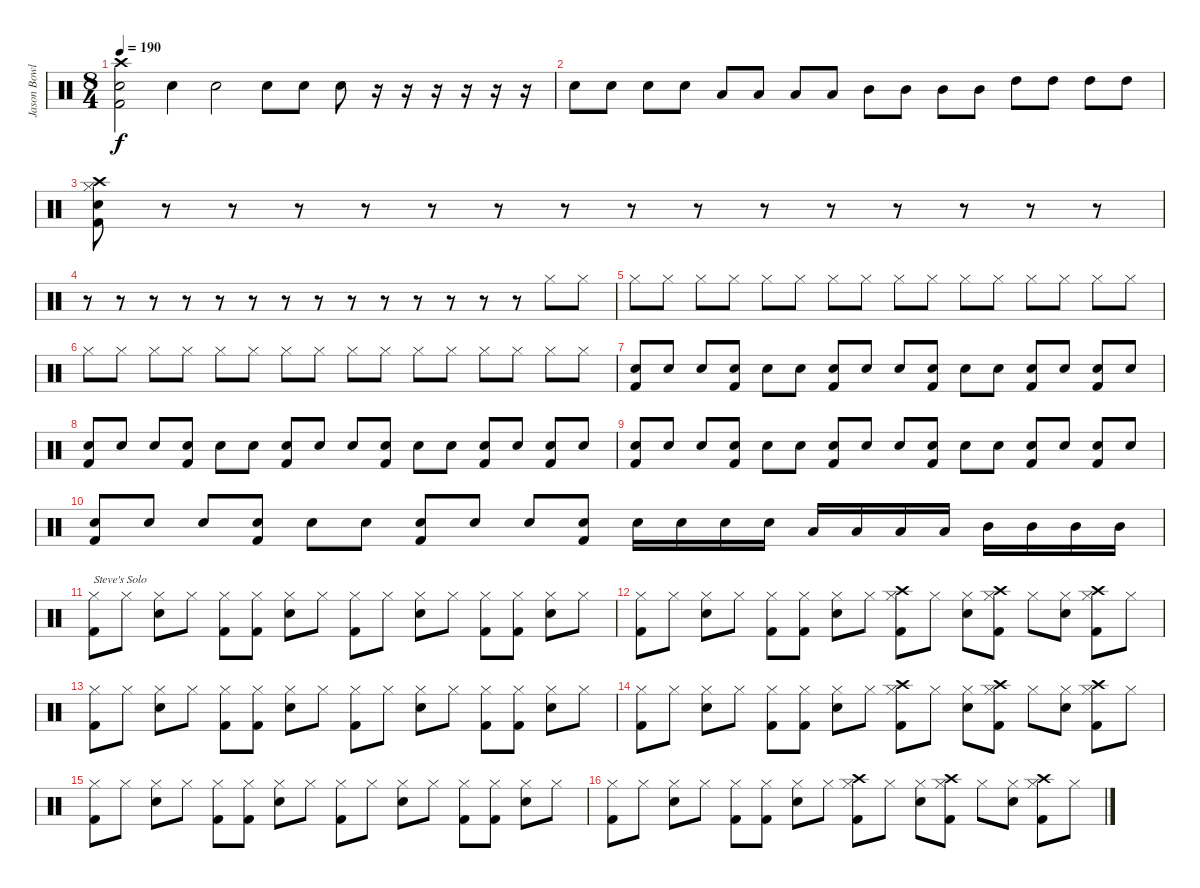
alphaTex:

\track ("Jason Bowld" "Jason Bowl") {instrument percussion}
\staff {score}
\articulation defaults
\ts (8 4)
\tempo 190
\clef neutral
\ks c
("Kick (hit) 2" "Snare (hit) 2" "Crash high (hit)").2{dy f} "Snare (hit) 2".4 "Snare (hit) 2".2 "Snare (hit) 2".8 "Snare (hit) 2".8 "Snare (hit) 2".8 r.16 r.16 r.16 r.16 r.16 r.16 |
"Snare (hit) 2".8 "Snare (hit) 2".8 "Snare (hit) 2".8 "Snare (hit) 2".8 "Low Tom (hit)".8 "Low Tom (hit)".8 "Low Tom (hit)".8 "Low Tom (hit)".8 "Mid Tom (hit)".8 "Mid Tom (hit)".8 "Mid Tom (hit)".8 "Mid Tom (hit)".8 "High Tom (hit)".8 "High Tom (hit)".8 "High Tom (hit)".8 "High Tom (hit)".8 |
("Hi-Hat (closed)" "Crash high (hit)" "Kick (hit) 2" "Snare (hit) 2").8 r.8 r.8 r.8 r.8 r.8 r.8 r.8 r.8 r.8 r.8 r.8 r.8 r.8 r.8 r.8 |
r.8 r.8 r.8 r.8 r.8 r.8 r.8 r.8 r.8 r.8 r.8 r.8 r.8 r.8 "Hi-Hat (closed)".8 "Hi-Hat (closed)".8 |
"Hi-Hat (closed)".8 "Hi-Hat (closed)".8 "Hi-Hat (closed)".8 "Hi-Hat (closed)".8 "Hi-Hat (closed)".8 "Hi-Hat (closed)".8 "Hi-Hat (closed)".8 "Hi-Hat (closed)".8 "Hi-Hat (closed)".8 "Hi-Hat (closed)".8 "Hi-Hat (closed)".8 "Hi-Hat (closed)".8 "Hi-Hat (closed)".8 "Hi-Hat (closed)".8 "Hi-Hat (closed)".8 "Hi-Hat (closed)".8 |
"Hi-Hat (closed)".8 "Hi-Hat (closed)".8 "Hi-Hat (closed)".8 "Hi-Hat (closed)".8 "Hi-Hat (closed)".8 "Hi-Hat (closed)".8 "Hi-Hat (closed)".8 "Hi-Hat (closed)".8 "Hi-Hat (closed)".8 "Hi-Hat (closed)".8 "Hi-Hat (closed)".8 "Hi-Hat (closed)".8 "Hi-Hat (closed)".8 "Hi-Hat (closed)".8 "Hi-Hat (closed)".8 "Hi-Hat (closed)".8 |
("Snare (hit) 2" "Kick (hit) 2").8 "Snare (hit) 2".8 "Snare (hit) 2".8 ("Snare (hit) 2" "Kick (hit) 2").8 "Snare (hit) 2".8 "Snare (hit) 2".8 ("Snare (hit) 2" "Kick (hit) 2").8 "Snare (hit) 2".8 "Snare (hit) 2".8 ("Snare (hit) 2" "Kick (hit) 2").8 "Snare (hit) 2".8 "Snare (hit) 2".8 ("Snare (hit) 2" "Kick (hit) 2").8 "Snare (hit) 2".8 ("Snare (hit) 2" "Kick (hit) 2").8 "Snare (hit) 2".8 |
("Snare (hit) 2" "Kick (hit) 2").8 "Snare (hit) 2".8 "Snare (hit) 2".8 ("Snare (hit) 2" "Kick (hit) 2").8 "Snare (hit) 2".8 "Snare (hit) 2".8 ("Snare (hit) 2" "Kick (hit) 2").8 "Snare (hit) 2".8 "Snare (hit) 2".8 ("Snare (hit) 2" "Kick (hit) 2").8 "Snare (hit) 2".8 "Snare (hit) 2".8 ("Snare (hit) 2" "Kick (hit) 2").8 "Snare (hit) 2".8 ("Snare (hit) 2" "Kick (hit) 2").8 "Snare (hit) 2".8 |
("Snare (hit) 2" "Kick (hit) 2").8 "Snare (hit) 2".8 "Snare (hit) 2".8 ("Snare (hit) 2" "Kick (hit) 2").8 "Snare (hit) 2".8 "Snare (hit) 2".8 ("Snare (hit) 2" "Kick (hit) 2").8 "Snare (hit) 2".8 "Snare (hit) 2".8 ("Snare (hit) 2" "Kick (hit) 2").8 "Snare (hit) 2".8 "Snare (hit) 2".8 ("Snare (hit) 2" "Kick (hit) 2").8 "Snare (hit) 2".8 ("Snare (hit) 2" "Kick (hit) 2").8 "Snare (hit) 2".8 |
("Snare (hit) 2" "Kick (hit) 2").8 "Snare (hit) 2".8 "Snare (hit) 2".8 ("Snare (hit) 2" "Kick (hit) 2").8 "Snare (hit) 2".8 "Snare (hit) 2".8 ("Snare (hit) 2" "Kick (hit) 2").8 "Snare (hit) 2".8 "Snare (hit) 2".8 ("Snare (hit) 2" "Kick (hit) 2").8 "Snare (hit) 2".16 "Snare (hit) 2".16 "Snare (hit) 2".16 "Snare (hit) 2".16 "Low Tom (hit)".16 "Low Tom (hit)".16 "Low Tom (hit)".16 "Low Tom (hit)".16 "Mid Tom (hit)".16 "Mid Tom (hit)".16 "Mid Tom (hit)".16 "Mid Tom (hit)".16 |
("Hi-Hat (closed)" "Kick (hit) 2").8{txt "Steve's Solo"} "Hi-Hat (closed)".8 ("Hi-Hat (closed)" "Snare (hit) 2").8 "Hi-Hat (closed)".8 ("Hi-Hat (closed)" "Kick (hit) 2").8 ("Hi-Hat (closed)" "Kick (hit) 2").8 ("Hi-Hat (closed)" "Snare (hit) 2").8 "Hi-Hat (closed)".8 ("Hi-Hat (closed)" "Kick (hit) 2").8 "Hi-Hat (closed)".8 ("Hi-Hat (closed)" "Snare (hit) 2").8 "Hi-Hat (closed)".8 ("Hi-Hat (closed)" "Kick (hit) 2").8 ("Hi-Hat (closed)" "Kick (hit) 2").8 ("Hi-Hat (closed)" "Snare (hit) 2").8 "Hi-Hat (closed)".8 |
("Hi-Hat (closed)" "Kick (hit) 2").8 "Hi-Hat (closed)".8 ("Hi-Hat (closed)" "Snare (hit) 2").8 "Hi-Hat (closed)".8 ("Hi-Hat (closed)" "Kick (hit) 2").8 ("Hi-Hat (closed)" "Kick (hit) 2").8 ("Hi-Hat (closed)" "Snare (hit) 2").8 "Hi-Hat (closed)".8 ("Hi-Hat (closed)" "Kick (hit) 2" "Crash high (hit)").8 "Hi-Hat (closed)".8 ("Hi-Hat (closed)" "Snare (hit) 2").8 ("Hi-Hat (closed)" "Kick (hit) 2" "Crash high (hit)").8 "Hi-Hat (closed)".8 ("Hi-Hat (closed)" "Snare (hit) 2").8 ("Hi-Hat (closed)" "Kick (hit) 2" "Crash high (hit)").8 "Hi-Hat (closed)".8 |
("Hi-Hat (closed)" "Kick (hit) 2").8 "Hi-Hat (closed)".8 ("Hi-Hat (closed)" "Snare (hit) 2").8 "Hi-Hat (closed)".8 ("Hi-Hat (closed)" "Kick (hit) 2").8 ("Hi-Hat (closed)" "Kick (hit) 2").8 ("Hi-Hat (closed)" "Snare (hit) 2").8 "Hi-Hat (closed)".8 ("Hi-Hat (closed)" "Kick (hit) 2").8 "Hi-Hat (closed)".8 ("Hi-Hat (closed)" "Snare (hit) 2").8 "Hi-Hat (closed)".8 ("Hi-Hat (closed)" "Kick (hit) 2").8 ("Hi-Hat (closed)" "Kick (hit) 2").8 ("Hi-Hat (closed)" "Snare (hit) 2").8 "Hi-Hat (closed)".8 |
("Hi-Hat (closed)" "Kick (hit) 2").8 "Hi-Hat (closed)".8 ("Hi-Hat (closed)" "Snare (hit) 2").8 "Hi-Hat (closed)".8 ("Hi-Hat (closed)" "Kick (hit) 2").8 ("Hi-Hat (closed)" "Kick (hit) 2").8 ("Hi-Hat (closed)" "Snare (hit) 2").8 "Hi-Hat (closed)".8 ("Hi-Hat (closed)" "Kick (hit) 2" "Crash high (hit)").8 "Hi-Hat (closed)".8 ("Hi-Hat (closed)" "Snare (hit) 2").8 ("Hi-Hat (closed)" "Kick (hit) 2" "Crash high (hit)").8 "Hi-Hat (closed)".8 ("Hi-Hat (closed)" "Snare (hit) 2").8 ("Hi-Hat (closed)" "Kick (hit) 2" "Crash high (hit)").8 "Hi-Hat (closed)".8 |
("Hi-Hat (closed)" "Kick (hit) 2").8 "Hi-Hat (closed)".8 ("Hi-Hat (closed)" "Snare (hit) 2").8 "Hi-Hat (closed)".8 ("Hi-Hat (closed)" "Kick (hit) 2").8 ("Hi-Hat (closed)" "Kick (hit) 2").8 ("Hi-Hat (closed)" "Snare (hit) 2").8 "Hi-Hat (closed)".8 ("Hi-Hat (closed)" "Kick (hit) 2").8 "Hi-Hat (closed)".8 ("Hi-Hat (closed)" "Snare (hit) 2").8 "Hi-Hat (closed)".8 ("Hi-Hat (closed)" "Kick (hit) 2").8 ("Hi-Hat (closed)" "Kick (hit) 2").8 ("Hi-Hat (closed)" "Snare (hit) 2").8 "Hi-Hat (closed)".8 |
("Hi-Hat (closed)" "Kick (hit) 2").8 "Hi-Hat (closed)".8 ("Hi-Hat (closed)" "Snare (hit) 2").8 "Hi-Hat (closed)".8 ("Hi-Hat (closed)" "Kick (hit) 2").8 ("Hi-Hat (closed)" "Kick (hit) 2").8 ("Hi-Hat (closed)" "Snare (hit) 2").8 "Hi-Hat (closed)".8 ("Hi-Hat (closed)" "Kick (hit) 2" "Crash high (hit)").8 "Hi-Hat (closed)".8 ("Hi-Hat (closed)" "Snare (hit) 2").8 ("Hi-Hat (closed)" "Kick (hit) 2" "Crash high (hit)").8 "Hi-Hat (closed)".8 ("Hi-Hat (closed)" "Snare (hit) 2").8 ("Hi-Hat (closed)" "Kick (hit) 2" "Crash high (hit)").8 "Hi-Hat (closed)".8
